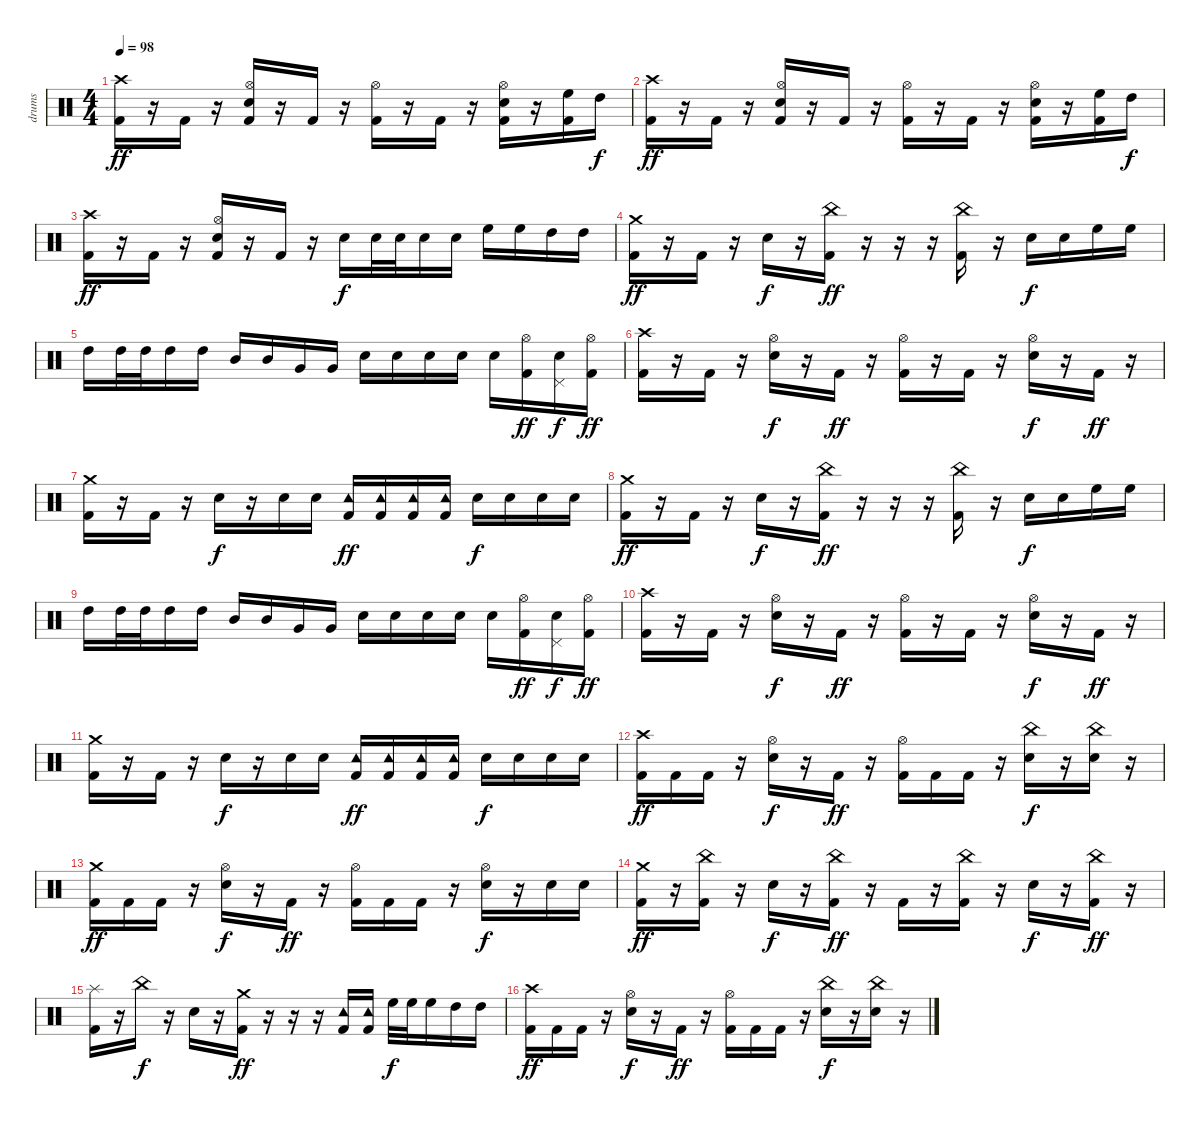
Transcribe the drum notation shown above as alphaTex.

\track ("drums" "drums") {instrument percussion}
\staff {score}
\articulation defaults
\ts (4 4)
\tempo 98
\clef neutral
\ks c
("Crash high (hit)" "Kick (hit) 2").16{dy ff} r.16 "Kick (hit) 2".16 r.16 ("Hi-Hat (open)" "Electric Snare (hit)" "Kick (hit) 2").16 r.16 "Kick (hit) 2".16 r.16 ("Hi-Hat (open)" "Kick (hit) 2").16 r.16 "Kick (hit) 2".16 r.16 ("Hi-Hat (open)" "Electric Snare (hit)" "Kick (hit) 2").16 r.16 ("High Floor Tom (hit)" "Kick (hit) 2").16 "High Tom (hit)".16{dy f} |
("Crash high (hit)" "Kick (hit) 2").16{dy ff} r.16 "Kick (hit) 2".16 r.16 ("Hi-Hat (open)" "Electric Snare (hit)" "Kick (hit) 2").16 r.16 "Kick (hit) 2".16 r.16 ("Hi-Hat (open)" "Kick (hit) 2").16 r.16 "Kick (hit) 2".16 r.16 ("Hi-Hat (open)" "Electric Snare (hit)" "Kick (hit) 2").16 r.16 ("High Floor Tom (hit)" "Kick (hit) 2").16 "High Tom (hit)".16{dy f} |
("Crash high (hit)" "Kick (hit) 2").16{dy ff} r.16 "Kick (hit) 2".16 r.16 ("Hi-Hat (open)" "Electric Snare (hit)" "Kick (hit) 2").16 r.16 "Kick (hit) 2".16 r.16 "Electric Snare (hit)".16{dy f} "Electric Snare (hit)".32 "Electric Snare (hit)".32 "Electric Snare (hit)".16 "Electric Snare (hit)".16 "High Floor Tom (hit)".16 "High Floor Tom (hit)".16 "High Tom (hit)".16 "High Tom (hit)".16 |
("Crash medium (hit)" "Kick (hit) 2").16{dy ff} r.16 "Kick (hit) 2".16 r.16 "Electric Snare (hit)".16{dy f} r.16 ("China (hit)" "Kick (hit) 2").16{dy ff} r.16 r.16 r.16 ("China (hit)" "Kick (hit) 2").16 r.16 "Electric Snare (hit)".16{dy f} "Electric Snare (hit)".16 "High Floor Tom (hit)".16 "High Floor Tom (hit)".16 |
"High Tom (hit)".16 "High Tom (hit)".32 "High Tom (hit)".32 "High Tom (hit)".16 "High Tom (hit)".16 "Mid Tom (hit)".16 "Mid Tom (hit)".16 "Very Low Tom (hit)".16 "Very Low Tom (hit)".16 "Electric Snare (hit)".16 "Electric Snare (hit)".16 "Electric Snare (hit)".16 "Electric Snare (hit)".16 "Electric Snare (hit)".16 ("Hi-Hat (open)" "Kick (hit) 2").16{dy ff} ("Pedal Hi-Hat (hit)" "Electric Snare (hit)").16{dy f} ("Hi-Hat (open)" "Kick (hit) 2").16{dy ff} |
("Crash high (hit)" "Kick (hit) 2").16 r.16 "Kick (hit) 2".16 r.16 ("Hi-Hat (open)" "Electric Snare (hit)").16{dy f} r.16 "Kick (hit) 2".16{dy ff} r.16 ("Hi-Hat (open)" "Kick (hit) 2").16 r.16 "Kick (hit) 2".16 r.16 ("Hi-Hat (open)" "Electric Snare (hit)").16{dy f} r.16 "Kick (hit) 2".16{dy ff} r.16 |
("Crash medium (hit)" "Kick (hit) 2").16 r.16 "Kick (hit) 2".16 r.16 "Electric Snare (hit)".16{dy f} r.16 "Electric Snare (hit)".16 "Electric Snare (hit)".16 ("Tambourine (hit)" "Kick (hit) 2").16{dy ff} ("Tambourine (hit)" "Kick (hit) 2").16 ("Tambourine (hit)" "Kick (hit) 2").16 ("Tambourine (hit)" "Kick (hit) 2").16 "Electric Snare (hit)".16{dy f} "Electric Snare (hit)".16 "Electric Snare (hit)".16 "Electric Snare (hit)".16 |
("Crash medium (hit)" "Kick (hit) 2").16{dy ff} r.16 "Kick (hit) 2".16 r.16 "Electric Snare (hit)".16{dy f} r.16 ("China (hit)" "Kick (hit) 2").16{dy ff} r.16 r.16 r.16 ("China (hit)" "Kick (hit) 2").16 r.16 "Electric Snare (hit)".16{dy f} "Electric Snare (hit)".16 "High Floor Tom (hit)".16 "High Floor Tom (hit)".16 |
"High Tom (hit)".16 "High Tom (hit)".32 "High Tom (hit)".32 "High Tom (hit)".16 "High Tom (hit)".16 "Mid Tom (hit)".16 "Mid Tom (hit)".16 "Very Low Tom (hit)".16 "Very Low Tom (hit)".16 "Electric Snare (hit)".16 "Electric Snare (hit)".16 "Electric Snare (hit)".16 "Electric Snare (hit)".16 "Electric Snare (hit)".16 ("Hi-Hat (open)" "Kick (hit) 2").16{dy ff} ("Pedal Hi-Hat (hit)" "Electric Snare (hit)").16{dy f} ("Hi-Hat (open)" "Kick (hit) 2").16{dy ff} |
("Crash high (hit)" "Kick (hit) 2").16 r.16 "Kick (hit) 2".16 r.16 ("Hi-Hat (open)" "Electric Snare (hit)").16{dy f} r.16 "Kick (hit) 2".16{dy ff} r.16 ("Hi-Hat (open)" "Kick (hit) 2").16 r.16 "Kick (hit) 2".16 r.16 ("Hi-Hat (open)" "Electric Snare (hit)").16{dy f} r.16 "Kick (hit) 2".16{dy ff} r.16 |
("Crash medium (hit)" "Kick (hit) 2").16 r.16 "Kick (hit) 2".16 r.16 "Electric Snare (hit)".16{dy f} r.16 "Electric Snare (hit)".16 "Electric Snare (hit)".16 ("Tambourine (hit)" "Kick (hit) 2").16{dy ff} ("Tambourine (hit)" "Kick (hit) 2").16 ("Tambourine (hit)" "Kick (hit) 2").16 ("Tambourine (hit)" "Kick (hit) 2").16 "Electric Snare (hit)".16{dy f} "Electric Snare (hit)".16 "Electric Snare (hit)".16 "Electric Snare (hit)".16 |
("Crash high (hit)" "Kick (hit) 2").16{dy ff} "Kick (hit) 2".16 "Kick (hit) 2".16 r.16 ("Hi-Hat (open)" "Electric Snare (hit)").16{dy f} r.16 "Kick (hit) 2".16{dy ff} r.16 ("Hi-Hat (open)" "Kick (hit) 2").16 "Kick (hit) 2".16 "Kick (hit) 2".16 r.16 ("China (hit)" "Electric Snare (hit)").16{dy f} r.16 ("China (hit)" "Electric Snare (hit)").16 r.16 |
("Crash medium (hit)" "Kick (hit) 2").16{dy ff} "Kick (hit) 2".16 "Kick (hit) 2".16 r.16 ("Hi-Hat (open)" "Electric Snare (hit)").16{dy f} r.16 "Kick (hit) 2".16{dy ff} r.16 ("Hi-Hat (open)" "Kick (hit) 2").16 "Kick (hit) 2".16 "Kick (hit) 2".16 r.16 ("Hi-Hat (open)" "Electric Snare (hit)").16{dy f} r.16 "Electric Snare (hit)".16 "Electric Snare (hit)".16 |
("Crash medium (hit)" "Kick (hit) 2").16{dy ff} r.16 ("China (hit)" "Kick (hit) 2").16 r.16 "Electric Snare (hit)".16{dy f} r.16 ("China (hit)" "Kick (hit) 2").16{dy ff} r.16 "Kick (hit) 2".16 r.16 ("China (hit)" "Kick (hit) 2").16 r.16 "Electric Snare (hit)".16{dy f} r.16 ("China (hit)" "Kick (hit) 2").16{dy ff} r.16 |
("Splash (hit)" "Kick (hit) 2").16 r.16 "China (hit)".16{dy f} r.16 "Electric Snare (hit)".16 r.16 ("Crash medium (hit)" "Kick (hit) 2").16{dy ff} r.16 r.16 r.16 ("Tambourine (hit)" "Kick (hit) 2").16 ("Tambourine (hit)" "Kick (hit) 2").16 "High Floor Tom (hit)".32{dy f} "High Floor Tom (hit)".32 "High Floor Tom (hit)".16 "High Tom (hit)".16 "High Tom (hit)".16 |
("Crash high (hit)" "Kick (hit) 2").16{dy ff} "Kick (hit) 2".16 "Kick (hit) 2".16 r.16 ("Hi-Hat (open)" "Electric Snare (hit)").16{dy f} r.16 "Kick (hit) 2".16{dy ff} r.16 ("Hi-Hat (open)" "Kick (hit) 2").16 "Kick (hit) 2".16 "Kick (hit) 2".16 r.16 ("China (hit)" "Electric Snare (hit)").16{dy f} r.16 ("China (hit)" "Electric Snare (hit)").16 r.16
